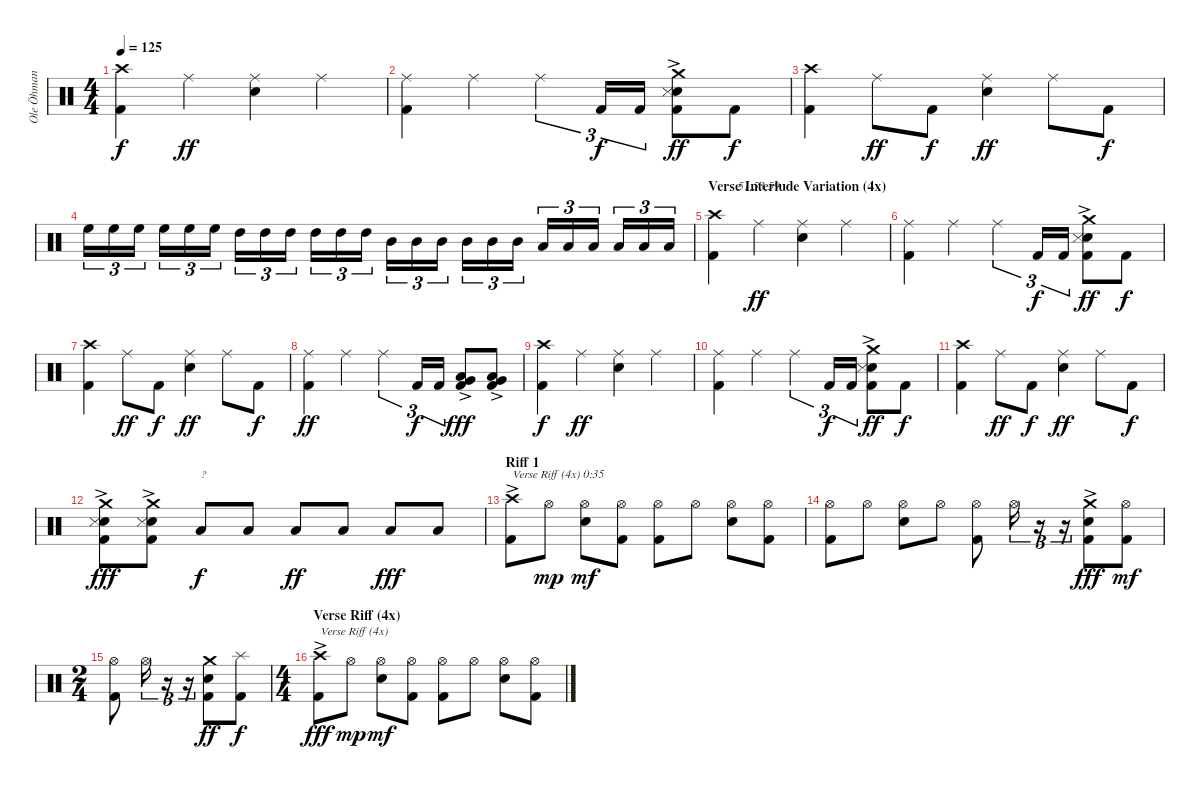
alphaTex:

\track ("Ole Öhman" "Ole Öhman") {instrument percussion}
\staff {score}
\articulation defaults
\chord ("51,53,59")
\ts (4 4)
\tempo 125
\clef neutral
\ks c
("Kick (hit) 2" "Crash high (hit)").4{dy f} "Ride (middle)".4{dy ff} ("Electric Snare (hit)" "Ride (middle)").4 "Ride (middle)".4 |
("Kick (hit) 2" "Ride (middle)").4 "Ride (middle)".4 "Ride (middle)".4{tu (3 2)} "Kick (hit) 2".16{tu (3 2) dy f} "Kick (hit) 2".16{tu (3 2)} ("Kick (hit) 2" "Electric Snare (hit)"{ac} "Snare (side stick) 3" "Crash medium (hit)").8{dy ff} "Kick (hit) 2".8{dy f} |
("Kick (hit) 2" "Crash high (hit)").4 "Ride (middle)".8{dy ff} "Kick (hit) 2".8{dy f} ("Electric Snare (hit)" "Ride (middle)").4{dy ff} "Ride (middle)".8 "Kick (hit) 2".8{dy f} |
"High Floor Tom (hit)".16{tu (3 2)} "High Floor Tom (hit)".16{tu (3 2)} "High Floor Tom (hit)".16{tu (3 2)} "High Floor Tom (hit)".16{tu (3 2)} "High Floor Tom (hit)".16{tu (3 2)} "High Floor Tom (hit)".16{tu (3 2)} "High Tom (hit)".16{tu (3 2)} "High Tom (hit)".16{tu (3 2)} "High Tom (hit)".16{tu (3 2)} "High Tom (hit)".16{tu (3 2)} "High Tom (hit)".16{tu (3 2)} "High Tom (hit)".16{tu (3 2)} "Mid Tom (hit)".16{tu (3 2)} "Mid Tom (hit)".16{tu (3 2)} "Mid Tom (hit)".16{tu (3 2)} "Mid Tom (hit)".16{tu (3 2)} "Mid Tom (hit)".16{tu (3 2)} "Mid Tom (hit)".16{tu (3 2)} "Low Tom (hit)".16{tu (3 2)} "Low Tom (hit)".16{tu (3 2)} "Low Tom (hit)".16{tu (3 2)} "Low Tom (hit)".16{tu (3 2)} "Low Tom (hit)".16{tu (3 2)} "Low Tom (hit)".16{tu (3 2)} |
\section ("" "Verse Interlude Variation (4x)")
("Kick (hit) 2" "Crash high (hit)").4 "Ride (middle)".4{ch "51,53,59" dy ff} ("Electric Snare (hit)" "Ride (middle)").4 "Ride (middle)".4 |
("Kick (hit) 2" "Ride (middle)").4 "Ride (middle)".4 "Ride (middle)".4{tu (3 2)} "Kick (hit) 2".16{tu (3 2) dy f} "Kick (hit) 2".16{tu (3 2)} ("Kick (hit) 2" "Electric Snare (hit)"{ac} "Snare (side stick) 3" "Crash medium (hit)").8{dy ff} "Kick (hit) 2".8{dy f} |
("Kick (hit) 2" "Crash high (hit)").4 "Ride (middle)".8{dy ff} "Kick (hit) 2".8{dy f} ("Electric Snare (hit)" "Ride (middle)").4{dy ff} "Ride (middle)".8 "Kick (hit) 2".8{dy f} |
("Kick (hit) 2" "Ride (middle)").4{dy ff} "Ride (middle)".4 "Ride (middle)".4{tu (3 2)} "Kick (hit) 2".16{tu (3 2) dy f} "Kick (hit) 2".16{tu (3 2)} ("Kick (hit) 2" "Low Tom (hit)"{ac} "Very Low Tom (hit)"{ac}).8{dy fff} ("Kick (hit) 2" "Low Tom (hit)"{ac} "Very Low Tom (hit)"{ac}).8 |
("Kick (hit) 2" "Crash high (hit)").4{dy f} "Ride (middle)".4{dy ff} ("Electric Snare (hit)" "Ride (middle)").4 "Ride (middle)".4 |
("Kick (hit) 2" "Ride (middle)").4 "Ride (middle)".4 "Ride (middle)".4{tu (3 2)} "Kick (hit) 2".16{tu (3 2) dy f} "Kick (hit) 2".16{tu (3 2)} ("Kick (hit) 2" "Electric Snare (hit)"{ac} "Snare (side stick) 3" "Crash medium (hit)").8{dy ff} "Kick (hit) 2".8{dy f} |
("Kick (hit) 2" "Crash high (hit)").4 "Ride (middle)".8{dy ff} "Kick (hit) 2".8{dy f} ("Electric Snare (hit)" "Ride (middle)").4{dy ff} "Ride (middle)".8 "Kick (hit) 2".8{dy f} |
("Kick (hit) 2" "Electric Snare (hit)"{ac} "Snare (side stick) 3" "Crash medium (hit)").8{dy fff} ("Kick (hit) 2" "Electric Snare (hit)"{ac} "Snare (side stick) 3" "Crash medium (hit)").8 "Low Tom (hit)".8{txt "?" dy f} "Low Tom (hit)".8 "Low Tom (hit)".8{dy ff} "Low Tom (hit)".8 "Low Tom (hit)".8{dy fff} "Low Tom (hit)".8 |
\section ("" "Riff 1")
("Kick (hit) 2" "Crash high (hit)"{ac}).8{txt "Verse Riff (4x) 0:35"} "Hi-Hat (open)".8{dy mp} ("Electric Snare (hit)" "Hi-Hat (open)").8{dy mf} ("Kick (hit) 2" "Hi-Hat (open)").8 ("Kick (hit) 2" "Hi-Hat (open)").8 "Hi-Hat (open)".8 ("Electric Snare (hit)" "Hi-Hat (open)").8 ("Kick (hit) 2" "Hi-Hat (open)").8 |
("Kick (hit) 2" "Hi-Hat (open)").8 "Hi-Hat (open)".8 ("Electric Snare (hit)" "Hi-Hat (open)").8 "Hi-Hat (open)".8 ("Kick (hit) 2" "Hi-Hat (open)").8 "Hi-Hat (open)".16{tu (3 2)} r.16{tu (3 2)} r.16{tu (3 2)} ("Kick (hit) 2" "Electric Snare (hit)" "Crash medium (hit)"{ac}).8{dy fff} ("Kick (hit) 2" "Hi-Hat (open)").8{dy mf} |
\ts (2 4)
("Kick (hit) 2" "Hi-Hat (open)").8 "Hi-Hat (open)".16{tu (3 2)} r.16{tu (3 2)} r.16{tu (3 2)} ("Kick (hit) 2" "Electric Snare (hit)" "Crash medium (hit)").8{dy ff} ("Kick (hit) 2" "Splash (hit)").8{dy f} |
\ts (4 4)
\section ("" "Verse Riff (4x)")
("Kick (hit) 2" "Crash high (hit)"{ac}).8{txt "Verse Riff (4x)" dy fff} "Hi-Hat (open)".8{dy mp} ("Electric Snare (hit)" "Hi-Hat (open)").8{dy mf} ("Kick (hit) 2" "Hi-Hat (open)").8 ("Kick (hit) 2" "Hi-Hat (open)").8 "Hi-Hat (open)".8 ("Electric Snare (hit)" "Hi-Hat (open)").8 ("Kick (hit) 2" "Hi-Hat (open)").8
